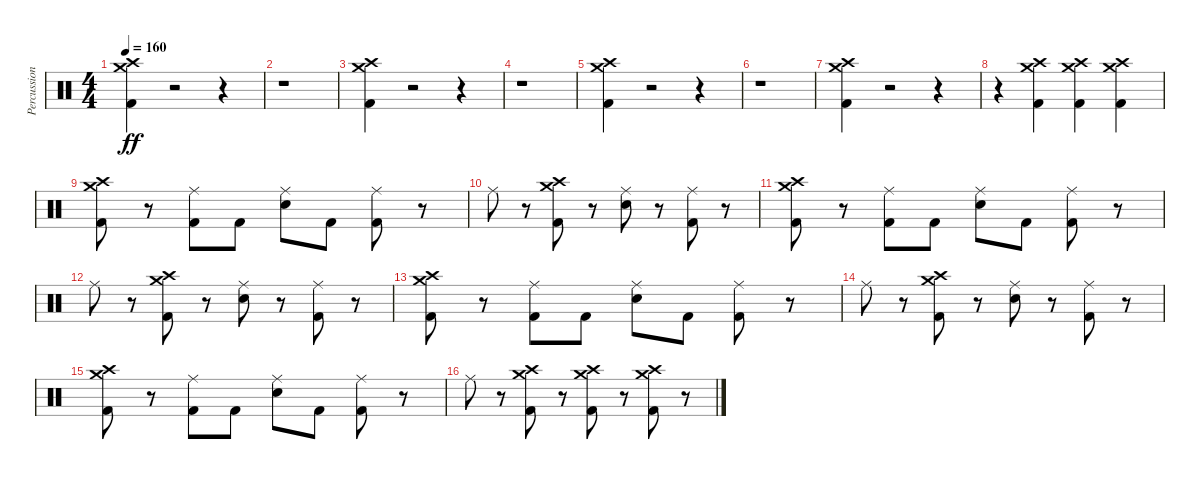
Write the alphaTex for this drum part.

\track ("Percussion" "Percussion") {instrument percussion}
\staff {score}
\articulation defaults
\ts (4 4)
\tempo 160
\clef neutral
\ks c
("Kick (hit) 2" "Crash high (hit)" "Crash medium (hit)").4{dy ff} r.2 r.4 |
r.1 |
("Kick (hit) 2" "Crash high (hit)" "Crash medium (hit)").4 r.2 r.4 |
r.1 |
("Kick (hit) 2" "Crash high (hit)" "Crash medium (hit)").4 r.2 r.4 |
r.1 |
("Kick (hit) 2" "Crash high (hit)" "Crash medium (hit)").4 r.2 r.4 |
r.4 ("Kick (hit) 2" "Crash high (hit)" "Crash medium (hit)").4 ("Kick (hit) 2" "Crash high (hit)" "Crash medium (hit)").4 ("Kick (hit) 2" "Crash high (hit)" "Crash medium (hit)").4 |
("Kick (hit) 2" "Crash high (hit)" "Crash medium (hit)").8 r.8 ("Kick (hit) 2" "Ride (middle)").8 "Kick (hit) 2".8 ("Electric Snare (hit)" "Ride (middle)").8 "Kick (hit) 2".8 ("Kick (hit) 2" "Ride (middle)").8 r.8 |
"Ride (middle)".8 r.8 ("Kick (hit) 2" "Crash high (hit)" "Crash medium (hit)").8 r.8 ("Electric Snare (hit)" "Ride (middle)").8 r.8 ("Kick (hit) 2" "Ride (middle)").8 r.8 |
("Kick (hit) 2" "Crash high (hit)" "Crash medium (hit)").8 r.8 ("Kick (hit) 2" "Ride (middle)").8 "Kick (hit) 2".8 ("Electric Snare (hit)" "Ride (middle)").8 "Kick (hit) 2".8 ("Kick (hit) 2" "Ride (middle)").8 r.8 |
"Ride (middle)".8 r.8 ("Kick (hit) 2" "Crash high (hit)" "Crash medium (hit)").8 r.8 ("Electric Snare (hit)" "Ride (middle)").8 r.8 ("Kick (hit) 2" "Ride (middle)").8 r.8 |
("Kick (hit) 2" "Crash high (hit)" "Crash medium (hit)").8 r.8 ("Kick (hit) 2" "Ride (middle)").8 "Kick (hit) 2".8 ("Electric Snare (hit)" "Ride (middle)").8 "Kick (hit) 2".8 ("Kick (hit) 2" "Ride (middle)").8 r.8 |
"Ride (middle)".8 r.8 ("Kick (hit) 2" "Crash high (hit)" "Crash medium (hit)").8 r.8 ("Electric Snare (hit)" "Ride (middle)").8 r.8 ("Kick (hit) 2" "Ride (middle)").8 r.8 |
("Kick (hit) 2" "Crash high (hit)" "Crash medium (hit)").8 r.8 ("Kick (hit) 2" "Ride (middle)").8 "Kick (hit) 2".8 ("Electric Snare (hit)" "Ride (middle)").8 "Kick (hit) 2".8 ("Kick (hit) 2" "Ride (middle)").8 r.8 |
"Ride (middle)".8 r.8 ("Kick (hit) 2" "Crash high (hit)" "Crash medium (hit)").8 r.8 ("Kick (hit) 2" "Crash high (hit)" "Crash medium (hit)").8 r.8 ("Kick (hit) 2" "Crash high (hit)" "Crash medium (hit)").8 r.8
